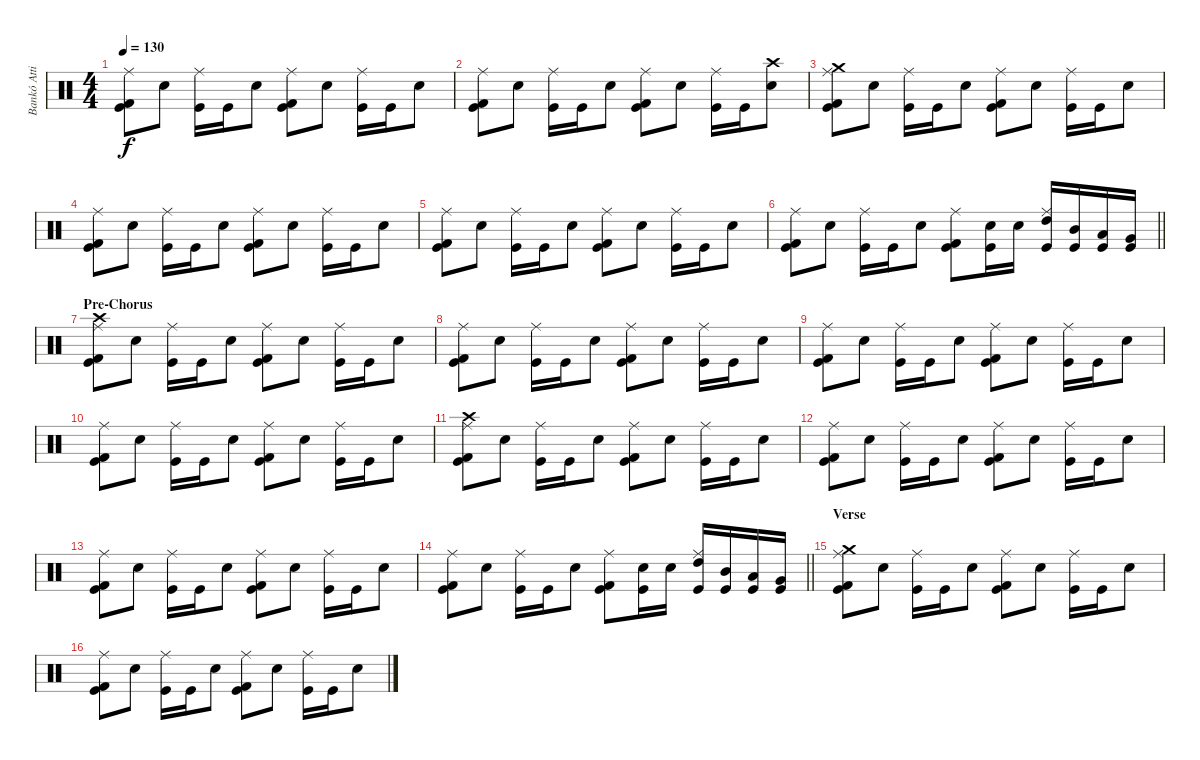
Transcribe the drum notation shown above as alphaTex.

\track ("Bankó Attila-Drum" "Bankó Atti") {instrument percussion}
\staff {score}
\articulation defaults
\ts (4 4)
\tempo 130
\clef neutral
\ks c
("Kick (hit) 2" "Kick (hit)" "Ride (middle)").8{dy f} "Snare (hit) 2".8 ("Kick (hit)" "Ride (middle)").16 "Kick (hit)".16 "Snare (hit) 2".8 ("Kick (hit) 2" "Kick (hit)" "Ride (middle)").8 "Snare (hit) 2".8 ("Kick (hit)" "Ride (middle)").16 "Kick (hit)".16 "Snare (hit) 2".8 |
("Kick (hit) 2" "Kick (hit)" "Ride (middle)").8 "Snare (hit) 2".8 ("Kick (hit)" "Ride (middle)").16 "Kick (hit)".16 "Snare (hit) 2".8 ("Kick (hit) 2" "Kick (hit)" "Ride (middle)").8 "Snare (hit) 2".8 ("Kick (hit)" "Ride (middle)").16 "Kick (hit)".16 ("Snare (hit) 2" "Crash high (hit)").8 |
("Kick (hit) 2" "Kick (hit)" "Crash medium (hit)" "Ride (middle)").8 "Snare (hit) 2".8 ("Kick (hit)" "Ride (middle)").16 "Kick (hit)".16 "Snare (hit) 2".8 ("Kick (hit) 2" "Kick (hit)" "Ride (middle)").8 "Snare (hit) 2".8 ("Kick (hit)" "Ride (middle)").16 "Kick (hit)".16 "Snare (hit) 2".8 |
("Kick (hit) 2" "Kick (hit)" "Ride (middle)").8 "Snare (hit) 2".8 ("Kick (hit)" "Ride (middle)").16 "Kick (hit)".16 "Snare (hit) 2".8 ("Kick (hit) 2" "Kick (hit)" "Ride (middle)").8 "Snare (hit) 2".8 ("Kick (hit)" "Ride (middle)").16 "Kick (hit)".16 "Snare (hit) 2".8 |
("Kick (hit) 2" "Kick (hit)" "Ride (middle)").8 "Snare (hit) 2".8 ("Kick (hit)" "Ride (middle)").16 "Kick (hit)".16 "Snare (hit) 2".8 ("Kick (hit) 2" "Kick (hit)" "Ride (middle)").8 "Snare (hit) 2".8 ("Kick (hit)" "Ride (middle)").16 "Kick (hit)".16 "Snare (hit) 2".8 |
\barLineRight lightlight
("Kick (hit) 2" "Kick (hit)" "Ride (middle)").8 "Snare (hit) 2".8 ("Kick (hit)" "Ride (middle)").16 "Kick (hit)".16 "Snare (hit) 2".8 ("Kick (hit) 2" "Kick (hit)" "Ride (middle)").8 ("Snare (hit) 2" "Kick (hit)").16 "Snare (hit) 2".16 ("High Tom (hit)" "Kick (hit)" "Ride (middle)").16 ("Mid Tom (hit)" "Kick (hit)").16 ("Low Tom (hit)" "Kick (hit)").16 ("Very Low Tom (hit)" "Kick (hit)").16 |
\section ("" "Pre-Chorus")
("Kick (hit) 2" "Kick (hit)" "Crash high (hit)" "Ride (middle)").8 "Snare (hit) 2".8 ("Kick (hit)" "Ride (middle)").16 "Kick (hit)".16 "Snare (hit) 2".8 ("Kick (hit) 2" "Kick (hit)" "Ride (middle)").8 "Snare (hit) 2".8 ("Kick (hit)" "Ride (middle)").16 "Kick (hit)".16 "Snare (hit) 2".8 |
("Kick (hit) 2" "Kick (hit)" "Ride (middle)").8 "Snare (hit) 2".8 ("Kick (hit)" "Ride (middle)").16 "Kick (hit)".16 "Snare (hit) 2".8 ("Kick (hit) 2" "Kick (hit)" "Ride (middle)").8 "Snare (hit) 2".8 ("Kick (hit)" "Ride (middle)").16 "Kick (hit)".16 "Snare (hit) 2".8 |
("Kick (hit) 2" "Kick (hit)" "Ride (middle)").8 "Snare (hit) 2".8 ("Kick (hit)" "Ride (middle)").16 "Kick (hit)".16 "Snare (hit) 2".8 ("Kick (hit) 2" "Kick (hit)" "Ride (middle)").8 "Snare (hit) 2".8 ("Kick (hit)" "Ride (middle)").16 "Kick (hit)".16 "Snare (hit) 2".8 |
("Kick (hit) 2" "Kick (hit)" "Ride (middle)").8 "Snare (hit) 2".8 ("Kick (hit)" "Ride (middle)").16 "Kick (hit)".16 "Snare (hit) 2".8 ("Kick (hit) 2" "Kick (hit)" "Ride (middle)").8 "Snare (hit) 2".8 ("Kick (hit)" "Ride (middle)").16 "Kick (hit)".16 "Snare (hit) 2".8 |
("Kick (hit) 2" "Kick (hit)" "Crash high (hit)" "Ride (middle)").8 "Snare (hit) 2".8 ("Kick (hit)" "Ride (middle)").16 "Kick (hit)".16 "Snare (hit) 2".8 ("Kick (hit) 2" "Kick (hit)" "Ride (middle)").8 "Snare (hit) 2".8 ("Kick (hit)" "Ride (middle)").16 "Kick (hit)".16 "Snare (hit) 2".8 |
("Kick (hit) 2" "Kick (hit)" "Ride (middle)").8 "Snare (hit) 2".8 ("Kick (hit)" "Ride (middle)").16 "Kick (hit)".16 "Snare (hit) 2".8 ("Kick (hit) 2" "Kick (hit)" "Ride (middle)").8 "Snare (hit) 2".8 ("Kick (hit)" "Ride (middle)").16 "Kick (hit)".16 "Snare (hit) 2".8 |
("Kick (hit) 2" "Kick (hit)" "Ride (middle)").8 "Snare (hit) 2".8 ("Kick (hit)" "Ride (middle)").16 "Kick (hit)".16 "Snare (hit) 2".8 ("Kick (hit) 2" "Kick (hit)" "Ride (middle)").8 "Snare (hit) 2".8 ("Kick (hit)" "Ride (middle)").16 "Kick (hit)".16 "Snare (hit) 2".8 |
\barLineRight lightlight
("Kick (hit) 2" "Kick (hit)" "Ride (middle)").8 "Snare (hit) 2".8 ("Kick (hit)" "Ride (middle)").16 "Kick (hit)".16 "Snare (hit) 2".8 ("Kick (hit) 2" "Kick (hit)" "Ride (middle)").8 ("Snare (hit) 2" "Kick (hit)").16 "Snare (hit) 2".16 ("High Tom (hit)" "Kick (hit)" "Ride (middle)").16 ("Mid Tom (hit)" "Kick (hit)").16 ("Low Tom (hit)" "Kick (hit)").16 ("Very Low Tom (hit)" "Kick (hit)").16 |
\section ("" "Verse")
("Kick (hit) 2" "Kick (hit)" "Crash medium (hit)" "Ride (middle)").8 "Snare (hit) 2".8 ("Kick (hit)" "Ride (middle)").16 "Kick (hit)".16 "Snare (hit) 2".8 ("Kick (hit) 2" "Kick (hit)" "Ride (middle)").8 "Snare (hit) 2".8 ("Kick (hit)" "Ride (middle)").16 "Kick (hit)".16 "Snare (hit) 2".8 |
("Kick (hit) 2" "Kick (hit)" "Ride (middle)").8 "Snare (hit) 2".8 ("Kick (hit)" "Ride (middle)").16 "Kick (hit)".16 "Snare (hit) 2".8 ("Kick (hit) 2" "Kick (hit)" "Ride (middle)").8 "Snare (hit) 2".8 ("Kick (hit)" "Ride (middle)").16 "Kick (hit)".16 "Snare (hit) 2".8
